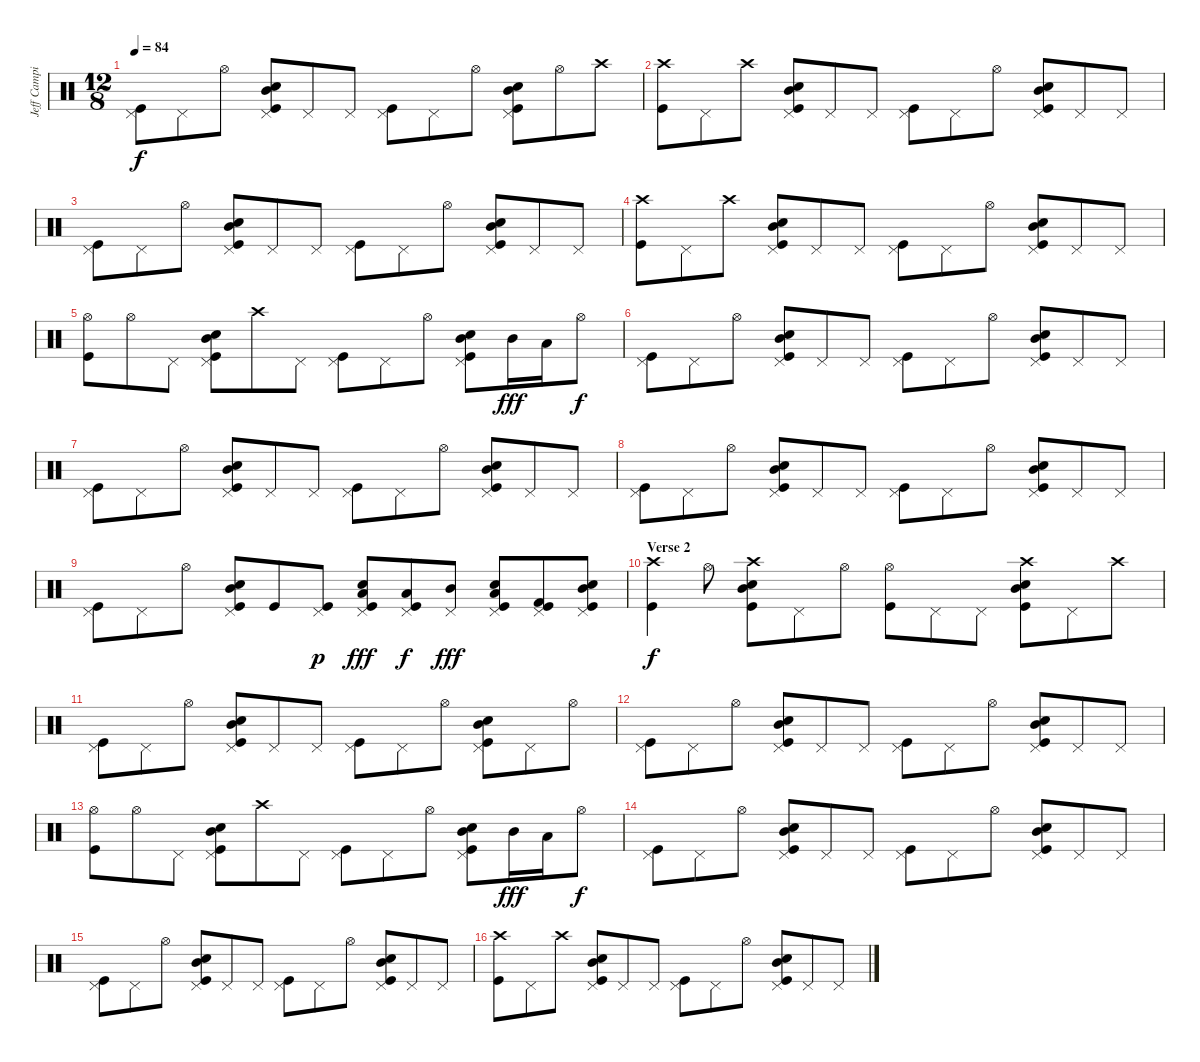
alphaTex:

\track ("Jeff Campitelli" "Jeff Campi") {instrument percussion}
\staff {score}
\articulation defaults
\ts (12 8)
\tempo 84
\clef neutral
\ks c
("Pedal Hi-Hat (hit)" "Kick (hit)").8{dy f} "Pedal Hi-Hat (hit)".8 "Hi-Hat (open)".8 ("Pedal Hi-Hat (hit)" "Snare (hit) 2" "Mid Tom (hit)" "Kick (hit)").8 "Pedal Hi-Hat (hit)".8 "Pedal Hi-Hat (hit)".8 ("Pedal Hi-Hat (hit)" "Kick (hit)").8 "Pedal Hi-Hat (hit)".8 "Hi-Hat (open)".8 ("Pedal Hi-Hat (hit)" "Snare (hit) 2" "Mid Tom (hit)" "Kick (hit)").8 "Hi-Hat (open)".8 "Crash high (hit)".8 |
("Crash high (hit)" "Kick (hit)").8 "Pedal Hi-Hat (hit)".8 "Crash high (hit)".8 ("Pedal Hi-Hat (hit)" "Snare (hit) 2" "Mid Tom (hit)" "Kick (hit)").8 "Pedal Hi-Hat (hit)".8 "Pedal Hi-Hat (hit)".8 ("Pedal Hi-Hat (hit)" "Kick (hit)").8 "Pedal Hi-Hat (hit)".8 "Hi-Hat (open)".8 ("Pedal Hi-Hat (hit)" "Snare (hit) 2" "Mid Tom (hit)" "Kick (hit)").8 "Pedal Hi-Hat (hit)".8 "Pedal Hi-Hat (hit)".8 |
("Pedal Hi-Hat (hit)" "Kick (hit)").8 "Pedal Hi-Hat (hit)".8 "Hi-Hat (open)".8 ("Pedal Hi-Hat (hit)" "Snare (hit) 2" "Mid Tom (hit)" "Kick (hit)").8 "Pedal Hi-Hat (hit)".8 "Pedal Hi-Hat (hit)".8 ("Pedal Hi-Hat (hit)" "Kick (hit)").8 "Pedal Hi-Hat (hit)".8 "Hi-Hat (open)".8 ("Pedal Hi-Hat (hit)" "Snare (hit) 2" "Mid Tom (hit)" "Kick (hit)").8 "Pedal Hi-Hat (hit)".8 "Pedal Hi-Hat (hit)".8 |
("Crash high (hit)" "Kick (hit)").8 "Pedal Hi-Hat (hit)".8 "Crash high (hit)".8 ("Pedal Hi-Hat (hit)" "Snare (hit) 2" "Mid Tom (hit)" "Kick (hit)").8 "Pedal Hi-Hat (hit)".8 "Pedal Hi-Hat (hit)".8 ("Pedal Hi-Hat (hit)" "Kick (hit)").8 "Pedal Hi-Hat (hit)".8 "Hi-Hat (open)".8 ("Pedal Hi-Hat (hit)" "Snare (hit) 2" "Mid Tom (hit)" "Kick (hit)").8 "Pedal Hi-Hat (hit)".8 "Pedal Hi-Hat (hit)".8 |
("Hi-Hat (open)" "Kick (hit)").8 "Hi-Hat (open)".8 "Pedal Hi-Hat (hit)".8 ("Pedal Hi-Hat (hit)" "Snare (hit) 2" "Mid Tom (hit)" "Kick (hit)").8 "Crash high (hit)".8 "Pedal Hi-Hat (hit)".8 ("Pedal Hi-Hat (hit)" "Kick (hit)").8 "Pedal Hi-Hat (hit)".8 "Hi-Hat (open)".8 ("Pedal Hi-Hat (hit)" "Snare (hit) 2" "Mid Tom (hit)" "Kick (hit)").8 "Mid Tom (hit)".16{dy fff} "Low Tom (hit)".16 "Hi-Hat (open)".8{dy f} |
("Pedal Hi-Hat (hit)" "Kick (hit)").8 "Pedal Hi-Hat (hit)".8 "Hi-Hat (open)".8 ("Pedal Hi-Hat (hit)" "Snare (hit) 2" "Mid Tom (hit)" "Kick (hit)").8 "Pedal Hi-Hat (hit)".8 "Pedal Hi-Hat (hit)".8 ("Pedal Hi-Hat (hit)" "Kick (hit)").8 "Pedal Hi-Hat (hit)".8 "Hi-Hat (open)".8 ("Pedal Hi-Hat (hit)" "Snare (hit) 2" "Mid Tom (hit)" "Kick (hit)").8 "Pedal Hi-Hat (hit)".8 "Pedal Hi-Hat (hit)".8 |
("Pedal Hi-Hat (hit)" "Kick (hit)").8 "Pedal Hi-Hat (hit)".8 "Hi-Hat (open)".8 ("Pedal Hi-Hat (hit)" "Snare (hit) 2" "Mid Tom (hit)" "Kick (hit)").8 "Pedal Hi-Hat (hit)".8 "Pedal Hi-Hat (hit)".8 ("Pedal Hi-Hat (hit)" "Kick (hit)").8 "Pedal Hi-Hat (hit)".8 "Hi-Hat (open)".8 ("Pedal Hi-Hat (hit)" "Snare (hit) 2" "Mid Tom (hit)" "Kick (hit)").8 "Pedal Hi-Hat (hit)".8 "Pedal Hi-Hat (hit)".8 |
("Pedal Hi-Hat (hit)" "Kick (hit)").8 "Pedal Hi-Hat (hit)".8 "Hi-Hat (open)".8 ("Pedal Hi-Hat (hit)" "Snare (hit) 2" "Mid Tom (hit)" "Kick (hit)").8 "Pedal Hi-Hat (hit)".8 "Pedal Hi-Hat (hit)".8 ("Pedal Hi-Hat (hit)" "Kick (hit)").8 "Pedal Hi-Hat (hit)".8 "Hi-Hat (open)".8 ("Pedal Hi-Hat (hit)" "Snare (hit) 2" "Mid Tom (hit)" "Kick (hit)").8 "Pedal Hi-Hat (hit)".8 "Pedal Hi-Hat (hit)".8 |
("Pedal Hi-Hat (hit)" "Kick (hit)").8 "Pedal Hi-Hat (hit)".8 "Hi-Hat (open)".8 ("Pedal Hi-Hat (hit)" "Snare (hit) 2" "Mid Tom (hit)" "Kick (hit)").8 "Kick (hit)".8 ("Pedal Hi-Hat (hit)" "Kick (hit)").8{dy p} ("Pedal Hi-Hat (hit)" "Snare (hit) 2" "Low Tom (hit)" "Kick (hit)").8{dy fff} ("Pedal Hi-Hat (hit)" "Low Tom (hit)" "Kick (hit)").8{dy f} ("Pedal Hi-Hat (hit)" "Mid Tom (hit)").8{dy fff} ("Pedal Hi-Hat (hit)" "Snare (hit) 2" "Low Tom (hit)" "Kick (hit)").8 ("Pedal Hi-Hat (hit)" "Kick (hit) 2" "Kick (hit)").8 ("Pedal Hi-Hat (hit)" "Snare (hit) 2" "Mid Tom (hit)" "Kick (hit)").8 |
\section ("" "Verse 2")
("Crash high (hit)" "Kick (hit)").4{dy f} "Hi-Hat (open)".8 ("Crash high (hit)" "Snare (hit) 2" "Mid Tom (hit)" "Kick (hit)").8 "Pedal Hi-Hat (hit)".8 "Hi-Hat (open)".8 ("Hi-Hat (open)" "Kick (hit)").8 "Pedal Hi-Hat (hit)".8 "Pedal Hi-Hat (hit)".8 ("Crash high (hit)" "Snare (hit) 2" "Mid Tom (hit)" "Kick (hit)").8 "Pedal Hi-Hat (hit)".8 "Crash high (hit)".8 |
("Pedal Hi-Hat (hit)" "Kick (hit)").8 "Pedal Hi-Hat (hit)".8 "Hi-Hat (open)".8 ("Pedal Hi-Hat (hit)" "Snare (hit) 2" "Mid Tom (hit)" "Kick (hit)").8 "Pedal Hi-Hat (hit)".8 "Pedal Hi-Hat (hit)".8 ("Pedal Hi-Hat (hit)" "Kick (hit)").8 "Pedal Hi-Hat (hit)".8 "Hi-Hat (open)".8 ("Pedal Hi-Hat (hit)" "Snare (hit) 2" "Mid Tom (hit)" "Kick (hit)").8 "Pedal Hi-Hat (hit)".8 "Hi-Hat (open)".8 |
("Pedal Hi-Hat (hit)" "Kick (hit)").8 "Pedal Hi-Hat (hit)".8 "Hi-Hat (open)".8 ("Pedal Hi-Hat (hit)" "Snare (hit) 2" "Mid Tom (hit)" "Kick (hit)").8 "Pedal Hi-Hat (hit)".8 "Pedal Hi-Hat (hit)".8 ("Pedal Hi-Hat (hit)" "Kick (hit)").8 "Pedal Hi-Hat (hit)".8 "Hi-Hat (open)".8 ("Pedal Hi-Hat (hit)" "Snare (hit) 2" "Mid Tom (hit)" "Kick (hit)").8 "Pedal Hi-Hat (hit)".8 "Pedal Hi-Hat (hit)".8 |
("Hi-Hat (open)" "Kick (hit)").8 "Hi-Hat (open)".8 "Pedal Hi-Hat (hit)".8 ("Pedal Hi-Hat (hit)" "Snare (hit) 2" "Mid Tom (hit)" "Kick (hit)").8 "Crash high (hit)".8 "Pedal Hi-Hat (hit)".8 ("Pedal Hi-Hat (hit)" "Kick (hit)").8 "Pedal Hi-Hat (hit)".8 "Hi-Hat (open)".8 ("Pedal Hi-Hat (hit)" "Snare (hit) 2" "Mid Tom (hit)" "Kick (hit)").8 "Mid Tom (hit)".16{dy fff} "Low Tom (hit)".16 "Hi-Hat (open)".8{dy f} |
("Pedal Hi-Hat (hit)" "Kick (hit)").8 "Pedal Hi-Hat (hit)".8 "Hi-Hat (open)".8 ("Pedal Hi-Hat (hit)" "Snare (hit) 2" "Mid Tom (hit)" "Kick (hit)").8 "Pedal Hi-Hat (hit)".8 "Pedal Hi-Hat (hit)".8 ("Pedal Hi-Hat (hit)" "Kick (hit)").8 "Pedal Hi-Hat (hit)".8 "Hi-Hat (open)".8 ("Pedal Hi-Hat (hit)" "Snare (hit) 2" "Mid Tom (hit)" "Kick (hit)").8 "Pedal Hi-Hat (hit)".8 "Pedal Hi-Hat (hit)".8 |
("Pedal Hi-Hat (hit)" "Kick (hit)").8 "Pedal Hi-Hat (hit)".8 "Hi-Hat (open)".8 ("Pedal Hi-Hat (hit)" "Snare (hit) 2" "Mid Tom (hit)" "Kick (hit)").8 "Pedal Hi-Hat (hit)".8 "Pedal Hi-Hat (hit)".8 ("Pedal Hi-Hat (hit)" "Kick (hit)").8 "Pedal Hi-Hat (hit)".8 "Hi-Hat (open)".8 ("Pedal Hi-Hat (hit)" "Snare (hit) 2" "Mid Tom (hit)" "Kick (hit)").8 "Pedal Hi-Hat (hit)".8 "Pedal Hi-Hat (hit)".8 |
("Crash high (hit)" "Kick (hit)").8 "Pedal Hi-Hat (hit)".8 "Crash high (hit)".8 ("Pedal Hi-Hat (hit)" "Snare (hit) 2" "Mid Tom (hit)" "Kick (hit)").8 "Pedal Hi-Hat (hit)".8 "Pedal Hi-Hat (hit)".8 ("Pedal Hi-Hat (hit)" "Kick (hit)").8 "Pedal Hi-Hat (hit)".8 "Hi-Hat (open)".8 ("Pedal Hi-Hat (hit)" "Snare (hit) 2" "Mid Tom (hit)" "Kick (hit)").8 "Pedal Hi-Hat (hit)".8 "Pedal Hi-Hat (hit)".8
